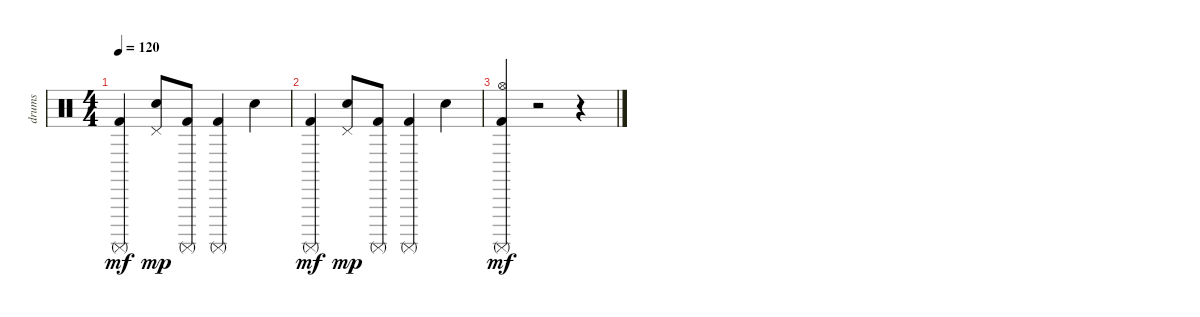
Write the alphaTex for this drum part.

\track ("drums" "drums") {instrument percussion}
\staff {score}
\articulation defaults
\ts (4 4)
\tempo 120
\clef neutral
\ks c
("Surdo (mute)" "Kick (hit) 2").4{dy mf} ("Snare (hit) 2" "Pedal Hi-Hat (hit)").8{dy mp} ("Kick (hit) 2" "Surdo (mute)").8 ("Kick (hit) 2" "Surdo (mute)").4 "Snare (hit) 2".4 |
("Surdo (mute)" "Kick (hit) 2").4{dy mf} ("Snare (hit) 2" "Pedal Hi-Hat (hit)").8{dy mp} ("Kick (hit) 2" "Surdo (mute)").8 ("Kick (hit) 2" "Surdo (mute)").4 "Snare (hit) 2".4 |
("Hi-Hat (open)" "Surdo (mute)" "Kick (hit) 2").4{dy mf} r.2 r.4
